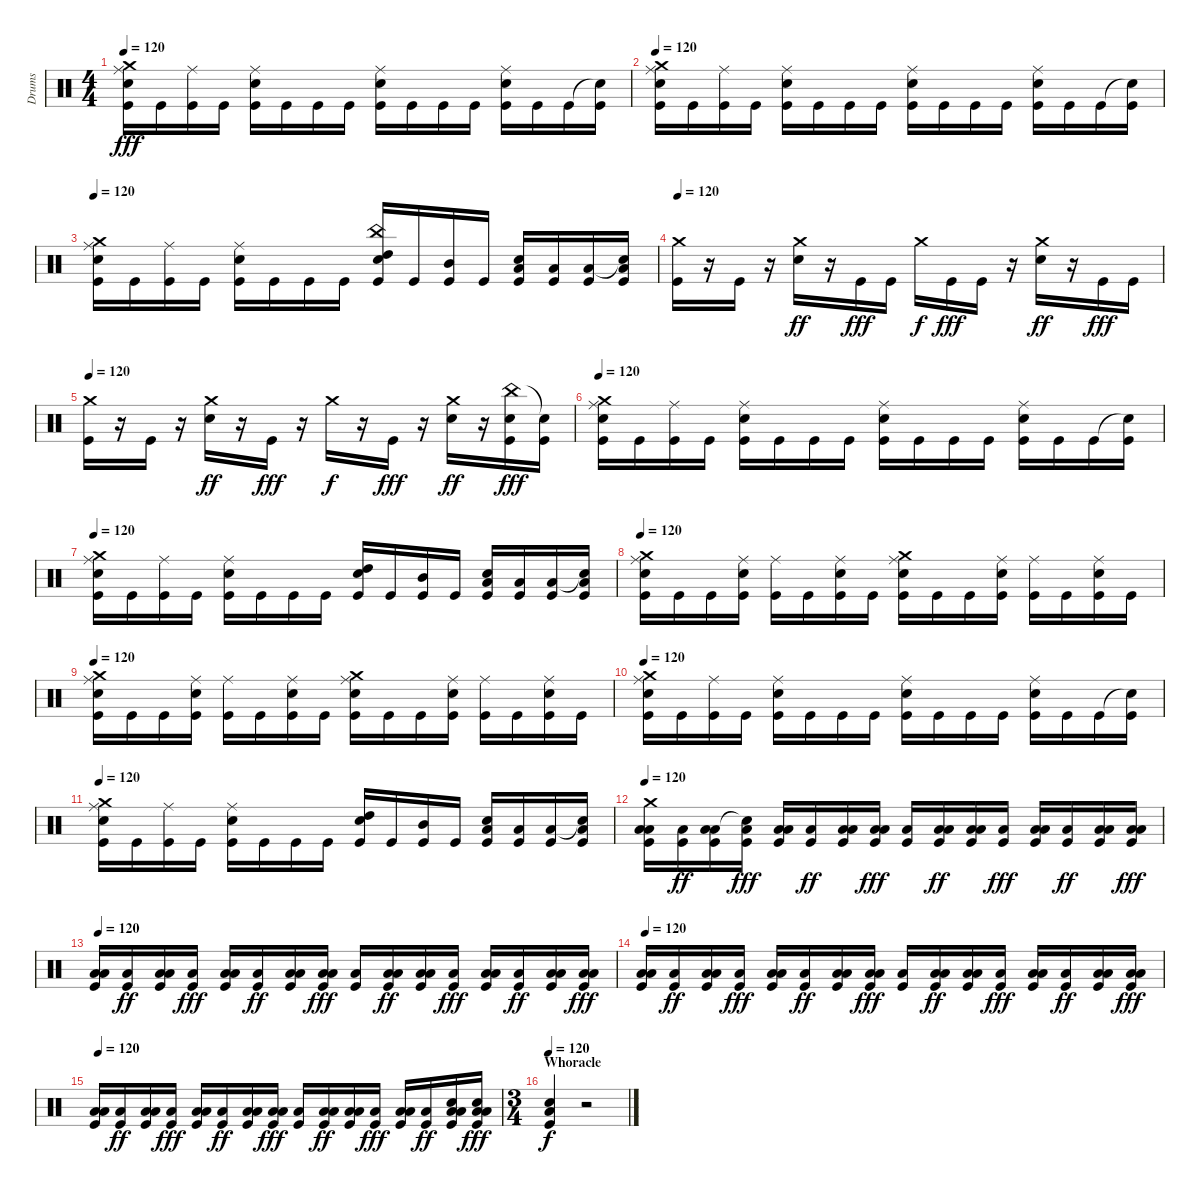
\track ("Drums" "Drums") {instrument percussion}
\staff {score}
\articulation defaults
\ts (4 4)
\tempo 120
\clef neutral
\ks c
("Ride (middle)" "Crash medium (hit)" "Snare (hit) 2" "Kick (hit)").16{dy fff} "Kick (hit)".16 ("Ride (middle)" "Kick (hit)").16 "Kick (hit)".16 ("Ride (middle)" "Snare (hit) 2" "Kick (hit)").16 "Kick (hit)".16 "Kick (hit)".16 "Kick (hit)".16 ("Ride (middle)" "Snare (hit) 2" "Kick (hit)").16 "Kick (hit)".16 "Kick (hit)".16 "Kick (hit)".16 ("Ride (middle)" "Snare (hit) 2" "Kick (hit)").16 "Kick (hit)".16 "Kick (hit)".16 ("Snare (hit)"{t} "Kick (hit)").16 |
\tempo 120
("Ride (middle)" "Crash medium (hit)" "Snare (hit) 2" "Kick (hit)").16 "Kick (hit)".16 ("Ride (middle)" "Kick (hit)").16 "Kick (hit)".16 ("Ride (middle)" "Snare (hit) 2" "Kick (hit)").16 "Kick (hit)".16 "Kick (hit)".16 "Kick (hit)".16 ("Ride (middle)" "Snare (hit) 2" "Kick (hit)").16 "Kick (hit)".16 "Kick (hit)".16 "Kick (hit)".16 ("Ride (middle)" "Snare (hit) 2" "Kick (hit)").16 "Kick (hit)".16 "Kick (hit)".16 ("Snare (hit)"{t} "Kick (hit)").16 |
\tempo 120
("Ride (middle)" "Crash medium (hit)" "Snare (hit) 2" "Kick (hit)").16 "Kick (hit)".16 ("Ride (middle)" "Kick (hit)").16 "Kick (hit)".16 ("Ride (middle)" "Snare (hit) 2" "Kick (hit)").16 "Kick (hit)".16 "Kick (hit)".16 "Kick (hit)".16 ("China (hit)" "High Tom (hit)" "Snare (hit) 2" "Kick (hit)").16 "Kick (hit)".16 ("Mid Tom (hit)" "Kick (hit)").16 "Kick (hit)".16 ("Low Tom (hit)" "Snare (hit) 2" "Kick (hit)").16 ("Low Tom (hit)" "Kick (hit)").16 ("Low Floor Tom (hit)" "Kick (hit)").16 ("Snare (hit)"{t} "Low Floor Tom (hit)" "Kick (hit)").16 |
\tempo 120
("Crash medium (hit)" "Kick (hit)").16 r.16 "Kick (hit)".16 r.16 ("Crash medium (hit)" "Electric Snare (hit)").16{dy ff} r.16 "Kick (hit)".16{dy fff} "Kick (hit)".16 "Crash medium (hit)".16{dy f} "Kick (hit)".16{dy fff} "Kick (hit)".16 r.16 ("Crash medium (hit)" "Electric Snare (hit)").16{dy ff} r.16 "Kick (hit)".16{dy fff} "Kick (hit)".16 |
\tempo 120
("Crash medium (hit)" "Kick (hit)").16 r.16 "Kick (hit)".16 r.16 ("Crash medium (hit)" "Electric Snare (hit)").16{dy ff} r.16 "Kick (hit)".16{dy fff} r.16 "Crash medium (hit)".16{dy f} r.16 "Kick (hit)".16{dy fff} r.16 ("Crash medium (hit)" "Electric Snare (hit)").16{dy ff} r.16 ("China (hit)" "Electric Snare (hit)" "Kick (hit)").16{dy fff} ("Snare (hit)"{t} "Kick (hit)").16 |
\tempo 120
("Ride (middle)" "Crash medium (hit)" "Snare (hit) 2" "Kick (hit)").16 "Kick (hit)".16 ("Ride (middle)" "Kick (hit)").16 "Kick (hit)".16 ("Ride (middle)" "Snare (hit) 2" "Kick (hit)").16 "Kick (hit)".16 "Kick (hit)".16 "Kick (hit)".16 ("Ride (middle)" "Snare (hit) 2" "Kick (hit)").16 "Kick (hit)".16 "Kick (hit)".16 "Kick (hit)".16 ("Ride (middle)" "Snare (hit) 2" "Kick (hit)").16 "Kick (hit)".16 "Kick (hit)".16 ("Snare (hit)"{t} "Kick (hit)").16 |
\tempo 120
("Ride (middle)" "Crash medium (hit)" "Snare (hit) 2" "Kick (hit)").16 "Kick (hit)".16 ("Ride (middle)" "Kick (hit)").16 "Kick (hit)".16 ("Ride (middle)" "Snare (hit) 2" "Kick (hit)").16 "Kick (hit)".16 "Kick (hit)".16 "Kick (hit)".16 ("High Tom (hit)" "Snare (hit) 2" "Kick (hit)").16 "Kick (hit)".16 ("Mid Tom (hit)" "Kick (hit)").16 "Kick (hit)".16 ("Low Tom (hit)" "Snare (hit) 2" "Kick (hit)").16 ("Low Tom (hit)" "Kick (hit)").16 ("Low Floor Tom (hit)" "Kick (hit)").16 ("Snare (hit)"{t} "Low Floor Tom (hit)" "Kick (hit)").16 |
\tempo 120
("Crash medium (hit)" "Ride (middle)" "Snare (hit) 2" "Kick (hit)").16 "Kick (hit)".16 "Kick (hit)".16 ("Ride (middle)" "Snare (hit) 2" "Kick (hit)").16 ("Ride (middle)" "Kick (hit)").16 "Kick (hit)".16 ("Ride (middle)" "Snare (hit) 2" "Kick (hit)").16 "Kick (hit)".16 ("Crash medium (hit)" "Ride (middle)" "Snare (hit) 2" "Kick (hit)").16 "Kick (hit)".16 "Kick (hit)".16 ("Ride (middle)" "Snare (hit) 2" "Kick (hit)").16 ("Ride (middle)" "Kick (hit)").16 "Kick (hit)".16 ("Ride (middle)" "Snare (hit) 2" "Kick (hit)").16 "Kick (hit)".16 |
\tempo 120
("Crash medium (hit)" "Ride (middle)" "Snare (hit) 2" "Kick (hit)").16 "Kick (hit)".16 "Kick (hit)".16 ("Ride (middle)" "Snare (hit) 2" "Kick (hit)").16 ("Ride (middle)" "Kick (hit)").16 "Kick (hit)".16 ("Ride (middle)" "Snare (hit) 2" "Kick (hit)").16 "Kick (hit)".16 ("Crash medium (hit)" "Ride (middle)" "Snare (hit) 2" "Kick (hit)").16 "Kick (hit)".16 "Kick (hit)".16 ("Ride (middle)" "Snare (hit) 2" "Kick (hit)").16 ("Ride (middle)" "Kick (hit)").16 "Kick (hit)".16 ("Ride (middle)" "Snare (hit) 2" "Kick (hit)").16 "Kick (hit)".16 |
\tempo 120
("Ride (middle)" "Crash medium (hit)" "Snare (hit) 2" "Kick (hit)").16 "Kick (hit)".16 ("Ride (middle)" "Kick (hit)").16 "Kick (hit)".16 ("Ride (middle)" "Snare (hit) 2" "Kick (hit)").16 "Kick (hit)".16 "Kick (hit)".16 "Kick (hit)".16 ("Ride (middle)" "Snare (hit) 2" "Kick (hit)").16 "Kick (hit)".16 "Kick (hit)".16 "Kick (hit)".16 ("Ride (middle)" "Snare (hit) 2" "Kick (hit)").16 "Kick (hit)".16 "Kick (hit)".16 ("Snare (hit)"{t} "Kick (hit)").16 |
\tempo 120
("Ride (middle)" "Crash medium (hit)" "Snare (hit) 2" "Kick (hit)").16 "Kick (hit)".16 ("Ride (middle)" "Kick (hit)").16 "Kick (hit)".16 ("Ride (middle)" "Snare (hit) 2" "Kick (hit)").16 "Kick (hit)".16 "Kick (hit)".16 "Kick (hit)".16 ("High Tom (hit)" "Snare (hit) 2" "Kick (hit)").16 "Kick (hit)".16 ("Mid Tom (hit)" "Kick (hit)").16 "Kick (hit)".16 ("Low Tom (hit)" "Snare (hit) 2" "Kick (hit)").16 ("Low Tom (hit)" "Kick (hit)").16 ("Low Floor Tom (hit)" "Kick (hit)").16 ("Snare (hit)"{t} "Low Floor Tom (hit)" "Kick (hit)").16 |
\tempo 120
("Crash medium (hit)" "Low Floor Tom (hit)" "Low Tom (hit)" "Kick (hit)").16 ("Low Floor Tom (hit)" "Kick (hit)").16{dy ff} ("Low Floor Tom (hit)" "Low Floor Tom (hit)" "Kick (hit)").16 ("Snare (hit)"{t} "Low Floor Tom (hit)" "Kick (hit)").16{dy fff} ("Low Floor Tom (hit)" "Low Floor Tom (hit)" "Kick (hit)").16 ("Low Floor Tom (hit)" "Kick (hit)").16{dy ff} ("Low Floor Tom (hit)" "Low Floor Tom (hit)" "Kick (hit)").16 ("Low Floor Tom (hit)" "Low Floor Tom (hit)" "Kick (hit)").16{dy fff} ("Low Floor Tom (hit)" "Kick (hit)").16 ("Low Floor Tom (hit)" "Low Floor Tom (hit)" "Kick (hit)").16{dy ff} ("Low Floor Tom (hit)" "Low Floor Tom (hit)" "Kick (hit)").16 ("Low Floor Tom (hit)" "Kick (hit)").16{dy fff} ("Low Floor Tom (hit)" "Low Floor Tom (hit)" "Kick (hit)").16 ("Low Floor Tom (hit)" "Kick (hit)").16{dy ff} ("Low Floor Tom (hit)" "Low Floor Tom (hit)" "Kick (hit)").16 ("Low Floor Tom (hit)" "Low Floor Tom (hit)" "Kick (hit)").16{dy fff} |
\tempo 120
("Low Floor Tom (hit)" "Low Tom (hit)" "Kick (hit)").16 ("Low Floor Tom (hit)" "Kick (hit)").16{dy ff} ("Low Floor Tom (hit)" "Low Floor Tom (hit)" "Kick (hit)").16 ("Low Floor Tom (hit)" "Kick (hit)").16{dy fff} ("Low Floor Tom (hit)" "Low Floor Tom (hit)" "Kick (hit)").16 ("Low Floor Tom (hit)" "Kick (hit)").16{dy ff} ("Low Floor Tom (hit)" "Low Floor Tom (hit)" "Kick (hit)").16 ("Low Floor Tom (hit)" "Low Floor Tom (hit)" "Kick (hit)").16{dy fff} ("Low Floor Tom (hit)" "Kick (hit)").16 ("Low Floor Tom (hit)" "Low Floor Tom (hit)" "Kick (hit)").16{dy ff} ("Low Floor Tom (hit)" "Low Floor Tom (hit)" "Kick (hit)").16 ("Low Floor Tom (hit)" "Kick (hit)").16{dy fff} ("Low Floor Tom (hit)" "Low Floor Tom (hit)" "Kick (hit)").16 ("Low Floor Tom (hit)" "Kick (hit)").16{dy ff} ("Low Floor Tom (hit)" "Low Floor Tom (hit)" "Kick (hit)").16 ("Low Floor Tom (hit)" "Low Floor Tom (hit)" "Kick (hit)").16{dy fff} |
\tempo 120
("Low Floor Tom (hit)" "Low Tom (hit)" "Kick (hit)").16 ("Low Floor Tom (hit)" "Kick (hit)").16{dy ff} ("Low Floor Tom (hit)" "Low Floor Tom (hit)" "Kick (hit)").16 ("Low Floor Tom (hit)" "Kick (hit)").16{dy fff} ("Low Floor Tom (hit)" "Low Floor Tom (hit)" "Kick (hit)").16 ("Low Floor Tom (hit)" "Kick (hit)").16{dy ff} ("Low Floor Tom (hit)" "Low Floor Tom (hit)" "Kick (hit)").16 ("Low Floor Tom (hit)" "Low Floor Tom (hit)" "Kick (hit)").16{dy fff} ("Low Floor Tom (hit)" "Kick (hit)").16 ("Low Floor Tom (hit)" "Low Floor Tom (hit)" "Kick (hit)").16{dy ff} ("Low Floor Tom (hit)" "Low Floor Tom (hit)" "Kick (hit)").16 ("Low Floor Tom (hit)" "Kick (hit)").16{dy fff} ("Low Floor Tom (hit)" "Low Floor Tom (hit)" "Kick (hit)").16 ("Low Floor Tom (hit)" "Kick (hit)").16{dy ff} ("Low Floor Tom (hit)" "Low Floor Tom (hit)" "Kick (hit)").16 ("Low Floor Tom (hit)" "Low Floor Tom (hit)" "Kick (hit)").16{dy fff} |
\tempo 120
("Low Floor Tom (hit)" "Low Tom (hit)" "Kick (hit)").16 ("Low Floor Tom (hit)" "Kick (hit)").16{dy ff} ("Low Floor Tom (hit)" "Low Floor Tom (hit)" "Kick (hit)").16 ("Low Floor Tom (hit)" "Kick (hit)").16{dy fff} ("Low Floor Tom (hit)" "Low Floor Tom (hit)" "Kick (hit)").16 ("Low Floor Tom (hit)" "Kick (hit)").16{dy ff} ("Low Floor Tom (hit)" "Low Floor Tom (hit)" "Kick (hit)").16 ("Low Floor Tom (hit)" "Low Floor Tom (hit)" "Kick (hit)").16{dy fff} ("Low Floor Tom (hit)" "Kick (hit)").16 ("Low Floor Tom (hit)" "Low Floor Tom (hit)" "Kick (hit)").16{dy ff} ("Low Floor Tom (hit)" "Low Floor Tom (hit)" "Kick (hit)").16 ("Low Floor Tom (hit)" "Kick (hit)").16{dy fff} ("Low Floor Tom (hit)" "Low Floor Tom (hit)" "Kick (hit)").16 ("Low Floor Tom (hit)" "Kick (hit)").16{dy ff} ("Snare (hit) 2" "Low Floor Tom (hit)" "Low Floor Tom (hit)" "Kick (hit)").16 ("Snare (hit) 2" "Low Floor Tom (hit)" "Low Floor Tom (hit)" "Kick (hit)").16{dy fff} |
\ts (3 4)
\section ("" "Whoracle")
\tempo 120
("Electric Snare (hit)" "Low Floor Tom (hit)" "Kick (hit)").4{dy f} r.2
